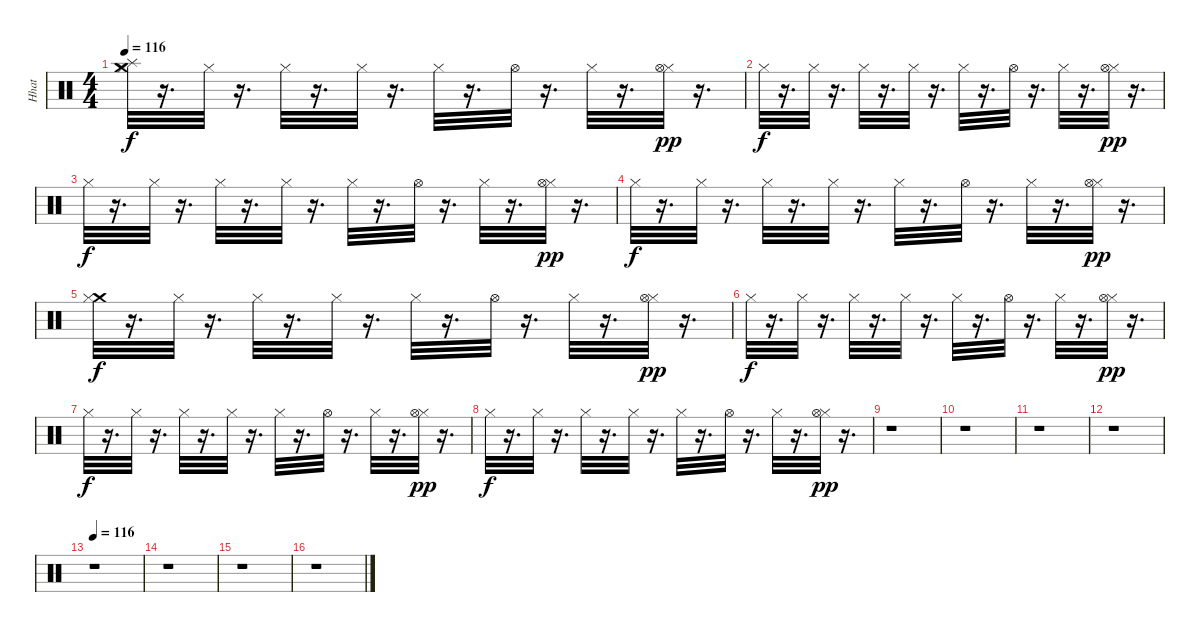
\track ("Hhat" "Hhat") {instrument percussion}
\staff {score}
\articulation defaults
\ts (4 4)
\tempo 116
\clef neutral
\ks c
("Splash (hit)" "Hi-Hat (closed)" "Crash medium (hit)").32{dy f} r.16{d} "Hi-Hat (closed)".32 r.16{d} "Hi-Hat (closed)".32 r.16{d} "Hi-Hat (closed)".32 r.16{d} "Hi-Hat (closed)".32 r.16{d} "Hi-Hat (open)".32 r.16{d} "Hi-Hat (closed)".32 r.16{d} ("Hi-Hat (closed)" "Hi-Hat (open)").32{dy pp} r.16{d} |
"Hi-Hat (closed)".32{dy f} r.16{d} "Hi-Hat (closed)".32 r.16{d} "Hi-Hat (closed)".32 r.16{d} "Hi-Hat (closed)".32 r.16{d} "Hi-Hat (closed)".32 r.16{d} "Hi-Hat (open)".32 r.16{d} "Hi-Hat (closed)".32 r.16{d} ("Hi-Hat (closed)" "Hi-Hat (open)").32{dy pp} r.16{d} |
"Hi-Hat (closed)".32{dy f} r.16{d} "Hi-Hat (closed)".32 r.16{d} "Hi-Hat (closed)".32 r.16{d} "Hi-Hat (closed)".32 r.16{d} "Hi-Hat (closed)".32 r.16{d} "Hi-Hat (open)".32 r.16{d} "Hi-Hat (closed)".32 r.16{d} ("Hi-Hat (closed)" "Hi-Hat (open)").32{dy pp} r.16{d} |
"Hi-Hat (closed)".32{dy f} r.16{d} "Hi-Hat (closed)".32 r.16{d} "Hi-Hat (closed)".32 r.16{d} "Hi-Hat (closed)".32 r.16{d} "Hi-Hat (closed)".32 r.16{d} "Hi-Hat (open)".32 r.16{d} "Hi-Hat (closed)".32 r.16{d} ("Hi-Hat (closed)" "Hi-Hat (open)").32{dy pp} r.16{d} |
("Crash medium (hit)" "Hi-Hat (closed)").32{dy f} r.16{d} "Hi-Hat (closed)".32 r.16{d} "Hi-Hat (closed)".32 r.16{d} "Hi-Hat (closed)".32 r.16{d} "Hi-Hat (closed)".32 r.16{d} "Hi-Hat (open)".32 r.16{d} "Hi-Hat (closed)".32 r.16{d} ("Hi-Hat (closed)" "Hi-Hat (open)").32{dy pp} r.16{d} |
"Hi-Hat (closed)".32{dy f} r.16{d} "Hi-Hat (closed)".32 r.16{d} "Hi-Hat (closed)".32 r.16{d} "Hi-Hat (closed)".32 r.16{d} "Hi-Hat (closed)".32 r.16{d} "Hi-Hat (open)".32 r.16{d} "Hi-Hat (closed)".32 r.16{d} ("Hi-Hat (closed)" "Hi-Hat (open)").32{dy pp} r.16{d} |
"Hi-Hat (closed)".32{dy f} r.16{d} "Hi-Hat (closed)".32 r.16{d} "Hi-Hat (closed)".32 r.16{d} "Hi-Hat (closed)".32 r.16{d} "Hi-Hat (closed)".32 r.16{d} "Hi-Hat (open)".32 r.16{d} "Hi-Hat (closed)".32 r.16{d} ("Hi-Hat (closed)" "Hi-Hat (open)").32{dy pp} r.16{d} |
"Hi-Hat (closed)".32{dy f} r.16{d} "Hi-Hat (closed)".32 r.16{d} "Hi-Hat (closed)".32 r.16{d} "Hi-Hat (closed)".32 r.16{d} "Hi-Hat (closed)".32 r.16{d} "Hi-Hat (open)".32 r.16{d} "Hi-Hat (closed)".32 r.16{d} ("Hi-Hat (closed)" "Hi-Hat (open)").32{dy pp} r.16{d} |
r.1 |
r.1 |
r.1 |
r.1 |
\tempo 116
r.1 |
r.1 |
r.1 |
r.1
